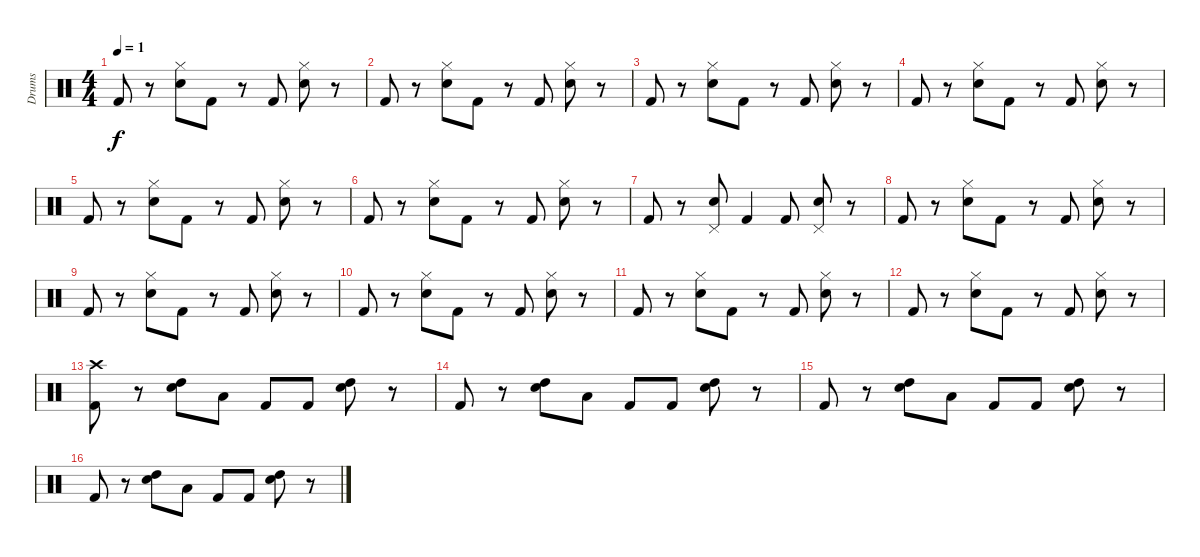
\track ("Drums" "Drums") {instrument percussion}
\staff {score}
\articulation defaults
\ts (4 4)
\tempo 1
\clef neutral
\ks c "Kick (hit) 2".8{dy f}
r.8 ("Hi-Hat (closed)" "Snare (hit) 2").8 "Kick (hit) 2".8 r.8 "Kick (hit) 2".8 ("Hi-Hat (closed)" "Snare (hit) 2").8 r.8 |
"Kick (hit) 2".8 r.8 ("Hi-Hat (closed)" "Snare (hit) 2").8 "Kick (hit) 2".8 r.8 "Kick (hit) 2".8 ("Hi-Hat (closed)" "Snare (hit) 2").8 r.8 |
"Kick (hit) 2".8 r.8 ("Hi-Hat (closed)" "Snare (hit) 2").8 "Kick (hit) 2".8 r.8 "Kick (hit) 2".8 ("Hi-Hat (closed)" "Snare (hit) 2").8 r.8 |
"Kick (hit) 2".8 r.8 ("Hi-Hat (closed)" "Snare (hit) 2").8 "Kick (hit) 2".8 r.8 "Kick (hit) 2".8 ("Hi-Hat (closed)" "Snare (hit) 2").8 r.8 |
"Kick (hit) 2".8 r.8 ("Hi-Hat (closed)" "Snare (hit) 2").8 "Kick (hit) 2".8 r.8 "Kick (hit) 2".8 ("Hi-Hat (closed)" "Snare (hit) 2").8 r.8 |
"Kick (hit) 2".8 r.8 ("Hi-Hat (closed)" "Snare (hit) 2").8 "Kick (hit) 2".8 r.8 "Kick (hit) 2".8 ("Hi-Hat (closed)" "Snare (hit) 2").8 r.8 |
"Kick (hit) 2".8 r.8 ("Pedal Hi-Hat (hit)" "Snare (hit) 2").8 "Kick (hit) 2".4 "Kick (hit) 2".8 ("Pedal Hi-Hat (hit)" "Snare (hit) 2").8 r.8 |
"Kick (hit) 2".8 r.8 ("Hi-Hat (closed)" "Snare (hit) 2").8 "Kick (hit) 2".8 r.8 "Kick (hit) 2".8 ("Hi-Hat (closed)" "Snare (hit) 2").8 r.8 |
"Kick (hit) 2".8 r.8 ("Hi-Hat (closed)" "Snare (hit) 2").8 "Kick (hit) 2".8 r.8 "Kick (hit) 2".8 ("Hi-Hat (closed)" "Snare (hit) 2").8 r.8 |
"Kick (hit) 2".8 r.8 ("Hi-Hat (closed)" "Snare (hit) 2").8 "Kick (hit) 2".8 r.8 "Kick (hit) 2".8 ("Hi-Hat (closed)" "Snare (hit) 2").8 r.8 |
"Kick (hit) 2".8 r.8 ("Hi-Hat (closed)" "Snare (hit) 2").8 "Kick (hit) 2".8 r.8 "Kick (hit) 2".8 ("Hi-Hat (closed)" "Snare (hit) 2").8 r.8 |
"Kick (hit) 2".8 r.8 ("Hi-Hat (closed)" "Snare (hit) 2").8 "Kick (hit) 2".8 r.8 "Kick (hit) 2".8 ("Hi-Hat (closed)" "Snare (hit) 2").8 r.8 |
("Crash high (hit)" "Kick (hit) 2").8 r.8 ("Snare (hit) 2" "High Tom (hit)").8 "Low Tom (hit)".8 "Kick (hit) 2".8 "Kick (hit) 2".8 ("Snare (hit) 2" "High Tom (hit)").8 r.8 |
"Kick (hit) 2".8 r.8 ("Snare (hit) 2" "High Tom (hit)").8 "Low Tom (hit)".8 "Kick (hit) 2".8 "Kick (hit) 2".8 ("Snare (hit) 2" "High Tom (hit)").8 r.8 |
"Kick (hit) 2".8 r.8 ("Snare (hit) 2" "High Tom (hit)").8 "Low Tom (hit)".8 "Kick (hit) 2".8 "Kick (hit) 2".8 ("Snare (hit) 2" "High Tom (hit)").8 r.8 |
"Kick (hit) 2".8 r.8 ("Snare (hit) 2" "High Tom (hit)").8 "Low Tom (hit)".8 "Kick (hit) 2".8 "Kick (hit) 2".8 ("Snare (hit) 2" "High Tom (hit)").8 r.8
